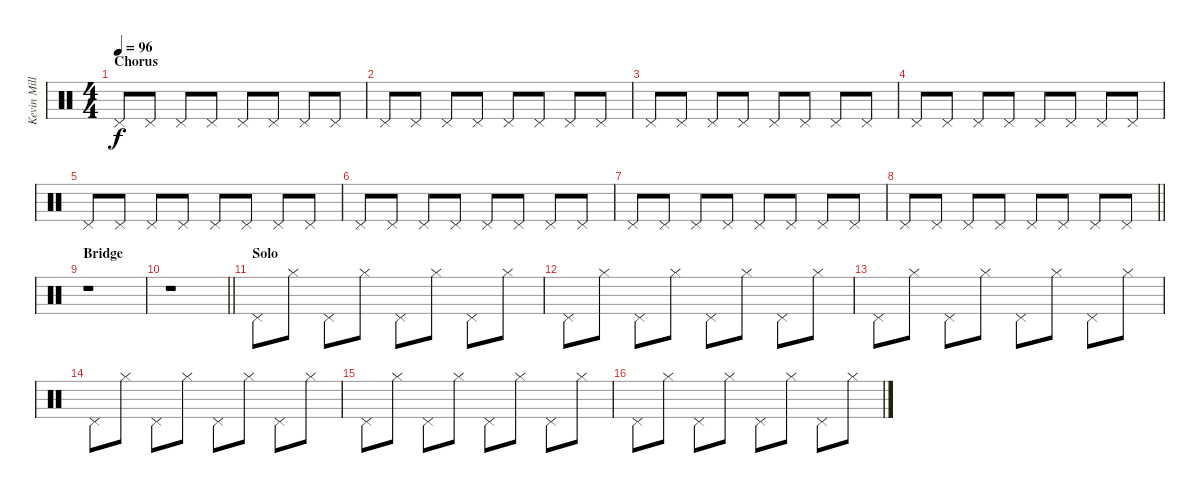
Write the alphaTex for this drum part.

\track ("Kevin Miller (Drums)" "Kevin Mill") {instrument percussion}
\staff {score}
\articulation defaults
\ts (4 4)
\section ("" "Chorus")
\tempo 96
\clef neutral
\ks c "Pedal Hi-Hat (hit)".8{dy f} "Pedal Hi-Hat (hit)".8 "Pedal Hi-Hat (hit)".8 "Pedal Hi-Hat (hit)".8 "Pedal Hi-Hat (hit)".8 "Pedal Hi-Hat (hit)".8 "Pedal Hi-Hat (hit)".8 "Pedal Hi-Hat (hit)".8
|
"Pedal Hi-Hat (hit)".8 "Pedal Hi-Hat (hit)".8 "Pedal Hi-Hat (hit)".8 "Pedal Hi-Hat (hit)".8 "Pedal Hi-Hat (hit)".8 "Pedal Hi-Hat (hit)".8 "Pedal Hi-Hat (hit)".8 "Pedal Hi-Hat (hit)".8 |
"Pedal Hi-Hat (hit)".8 "Pedal Hi-Hat (hit)".8 "Pedal Hi-Hat (hit)".8 "Pedal Hi-Hat (hit)".8 "Pedal Hi-Hat (hit)".8 "Pedal Hi-Hat (hit)".8 "Pedal Hi-Hat (hit)".8 "Pedal Hi-Hat (hit)".8 |
"Pedal Hi-Hat (hit)".8 "Pedal Hi-Hat (hit)".8 "Pedal Hi-Hat (hit)".8 "Pedal Hi-Hat (hit)".8 "Pedal Hi-Hat (hit)".8 "Pedal Hi-Hat (hit)".8 "Pedal Hi-Hat (hit)".8 "Pedal Hi-Hat (hit)".8 |
"Pedal Hi-Hat (hit)".8 "Pedal Hi-Hat (hit)".8 "Pedal Hi-Hat (hit)".8 "Pedal Hi-Hat (hit)".8 "Pedal Hi-Hat (hit)".8 "Pedal Hi-Hat (hit)".8 "Pedal Hi-Hat (hit)".8 "Pedal Hi-Hat (hit)".8 |
"Pedal Hi-Hat (hit)".8 "Pedal Hi-Hat (hit)".8 "Pedal Hi-Hat (hit)".8 "Pedal Hi-Hat (hit)".8 "Pedal Hi-Hat (hit)".8 "Pedal Hi-Hat (hit)".8 "Pedal Hi-Hat (hit)".8 "Pedal Hi-Hat (hit)".8 |
"Pedal Hi-Hat (hit)".8 "Pedal Hi-Hat (hit)".8 "Pedal Hi-Hat (hit)".8 "Pedal Hi-Hat (hit)".8 "Pedal Hi-Hat (hit)".8 "Pedal Hi-Hat (hit)".8 "Pedal Hi-Hat (hit)".8 "Pedal Hi-Hat (hit)".8 |
\barLineRight lightlight "Pedal Hi-Hat (hit)".8 "Pedal Hi-Hat (hit)".8 "Pedal Hi-Hat (hit)".8 "Pedal Hi-Hat (hit)".8 "Pedal Hi-Hat (hit)".8 "Pedal Hi-Hat (hit)".8 "Pedal Hi-Hat (hit)".8 "Pedal Hi-Hat (hit)".8
|
\section ("" "Bridge")
r.1 |
\barLineRight lightlight
r.1 |
\section ("" "Solo")
"Pedal Hi-Hat (hit)".8 "Hi-Hat (closed)".8 "Pedal Hi-Hat (hit)".8 "Hi-Hat (closed)".8 "Pedal Hi-Hat (hit)".8 "Hi-Hat (closed)".8 "Pedal Hi-Hat (hit)".8 "Hi-Hat (closed)".8 |
"Pedal Hi-Hat (hit)".8 "Hi-Hat (closed)".8 "Pedal Hi-Hat (hit)".8 "Hi-Hat (closed)".8 "Pedal Hi-Hat (hit)".8 "Hi-Hat (closed)".8 "Pedal Hi-Hat (hit)".8 "Hi-Hat (closed)".8 |
"Pedal Hi-Hat (hit)".8 "Hi-Hat (closed)".8 "Pedal Hi-Hat (hit)".8 "Hi-Hat (closed)".8 "Pedal Hi-Hat (hit)".8 "Hi-Hat (closed)".8 "Pedal Hi-Hat (hit)".8 "Hi-Hat (closed)".8 |
"Pedal Hi-Hat (hit)".8 "Hi-Hat (closed)".8 "Pedal Hi-Hat (hit)".8 "Hi-Hat (closed)".8 "Pedal Hi-Hat (hit)".8 "Hi-Hat (closed)".8 "Pedal Hi-Hat (hit)".8 "Hi-Hat (closed)".8 |
"Pedal Hi-Hat (hit)".8 "Hi-Hat (closed)".8 "Pedal Hi-Hat (hit)".8 "Hi-Hat (closed)".8 "Pedal Hi-Hat (hit)".8 "Hi-Hat (closed)".8 "Pedal Hi-Hat (hit)".8 "Hi-Hat (closed)".8 |
"Pedal Hi-Hat (hit)".8 "Hi-Hat (closed)".8 "Pedal Hi-Hat (hit)".8 "Hi-Hat (closed)".8 "Pedal Hi-Hat (hit)".8 "Hi-Hat (closed)".8 "Pedal Hi-Hat (hit)".8 "Hi-Hat (closed)".8
